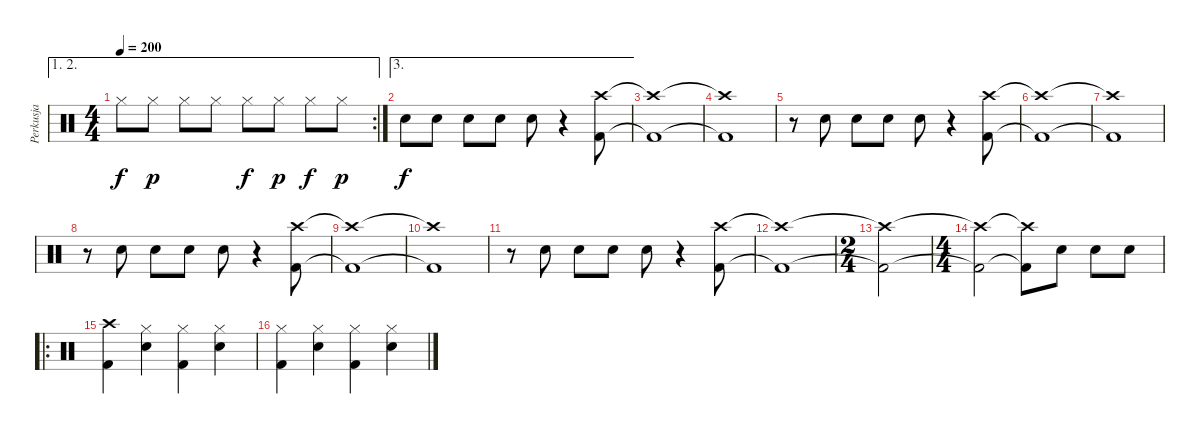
\track ("Perkusja" "Perkusja") {instrument percussion}
\staff {score}
\articulation defaults
\ae (1 2)
\rc 2
\ts (4 4)
\tempo 200
\clef neutral
\ks c "Hi-Hat (closed)".8{dy f} "Hi-Hat (closed)".8{dy p} "Hi-Hat (closed)".8 "Hi-Hat (closed)".8 "Hi-Hat (closed)".8{dy f} "Hi-Hat (closed)".8{dy p} "Hi-Hat (closed)".8{dy f} "Hi-Hat (closed)".8{dy p}
|
\ae 3 "Snare (hit) 2".8{dy f} "Snare (hit) 2".8 "Snare (hit) 2".8 "Snare (hit) 2".8 "Snare (hit) 2".8
r.4 ("Crash high (hit)" "Kick (hit) 2").8 |
("Crash high (hit)"{t} "Kick (hit) 2"{t}).1 |
("Crash high (hit)"{t} "Kick (hit) 2"{t}).1 |
r.8 "Snare (hit) 2".8 "Snare (hit) 2".8 "Snare (hit) 2".8 "Snare (hit) 2".8 r.4 ("Crash high (hit)" "Kick (hit) 2").8 |
("Crash high (hit)"{t} "Kick (hit) 2"{t}).1 |
("Crash high (hit)"{t} "Kick (hit) 2"{t}).1 |
r.8 "Snare (hit) 2".8 "Snare (hit) 2".8 "Snare (hit) 2".8 "Snare (hit) 2".8 r.4 ("Crash high (hit)" "Kick (hit) 2").8 |
("Crash high (hit)"{t} "Kick (hit) 2"{t}).1 |
("Crash high (hit)"{t} "Kick (hit) 2"{t}).1 |
r.8 "Snare (hit) 2".8 "Snare (hit) 2".8 "Snare (hit) 2".8 "Snare (hit) 2".8 r.4 ("Crash high (hit)" "Kick (hit) 2").8 |
("Crash high (hit)"{t} "Kick (hit) 2"{t}).1 |
\ts (2 4)
("Crash high (hit)"{t} "Kick (hit) 2"{t}).2 |
\ts (4 4)
("Crash high (hit)"{t} "Kick (hit) 2"{t}).2 ("Crash high (hit)"{t} "Kick (hit) 2"{t}).8 "Snare (hit) 2".8 "Snare (hit) 2".8 "Snare (hit) 2".8 |
\ro
("Crash high (hit)" "Kick (hit) 2").4 ("Hi-Hat (closed)" "Snare (hit) 2").4 ("Hi-Hat (closed)" "Kick (hit) 2").4 ("Hi-Hat (closed)" "Snare (hit) 2").4 |
("Hi-Hat (closed)" "Kick (hit) 2").4 ("Hi-Hat (closed)" "Snare (hit) 2").4 ("Hi-Hat (closed)" "Kick (hit) 2").4 ("Hi-Hat (closed)" "Snare (hit) 2").4
